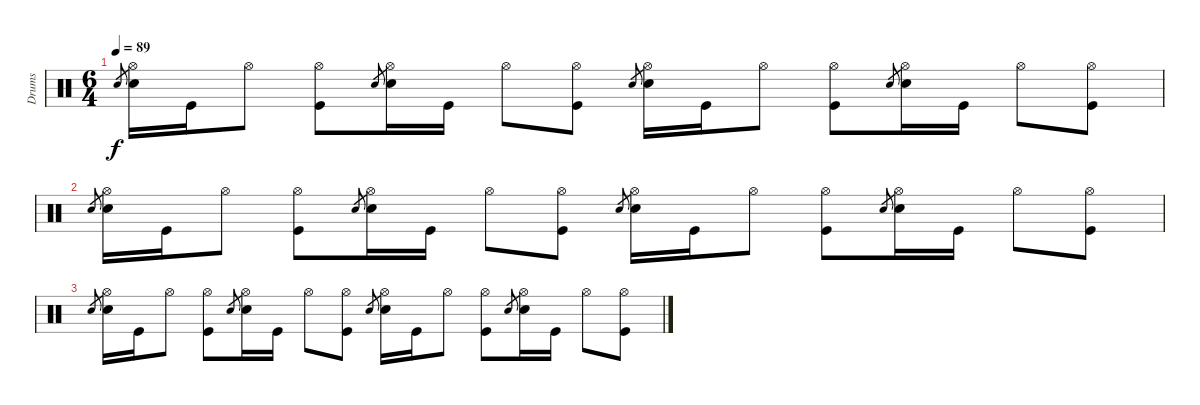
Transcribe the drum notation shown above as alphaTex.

\track ("Drums" "Drums") {instrument percussion}
\staff {score}
\articulation defaults
\ts (6 4)
\tempo 89
\clef neutral
\ks c "Snare (hit) 2".8{gr dy f}
("Hi-Hat (open)" "Snare (hit) 2").16 "Kick (hit)".16 "Hi-Hat (open)".8 ("Hi-Hat (open)" "Kick (hit)").8 "Snare (hit) 2".8{gr} ("Hi-Hat (open)" "Snare (hit) 2").16 "Kick (hit)".16 "Hi-Hat (open)".8 ("Hi-Hat (open)" "Kick (hit)").8 "Snare (hit) 2".8{gr} ("Hi-Hat (open)" "Snare (hit) 2").16 "Kick (hit)".16 "Hi-Hat (open)".8 ("Hi-Hat (open)" "Kick (hit)").8 "Snare (hit) 2".8{gr} ("Hi-Hat (open)" "Snare (hit) 2").16 "Kick (hit)".16 "Hi-Hat (open)".8 ("Hi-Hat (open)" "Kick (hit)").8 |
"Snare (hit) 2".8{gr} ("Hi-Hat (open)" "Snare (hit) 2").16 "Kick (hit)".16 "Hi-Hat (open)".8 ("Hi-Hat (open)" "Kick (hit)").8 "Snare (hit) 2".8{gr} ("Hi-Hat (open)" "Snare (hit) 2").16 "Kick (hit)".16 "Hi-Hat (open)".8 ("Hi-Hat (open)" "Kick (hit)").8 "Snare (hit) 2".8{gr} ("Hi-Hat (open)" "Snare (hit) 2").16 "Kick (hit)".16 "Hi-Hat (open)".8 ("Hi-Hat (open)" "Kick (hit)").8 "Snare (hit) 2".8{gr} ("Hi-Hat (open)" "Snare (hit) 2").16 "Kick (hit)".16 "Hi-Hat (open)".8 ("Hi-Hat (open)" "Kick (hit)").8 |
"Snare (hit) 2".8{gr} ("Hi-Hat (open)" "Snare (hit) 2").16 "Kick (hit)".16 "Hi-Hat (open)".8 ("Hi-Hat (open)" "Kick (hit)").8 "Snare (hit) 2".8{gr} ("Hi-Hat (open)" "Snare (hit) 2").16 "Kick (hit)".16 "Hi-Hat (open)".8 ("Hi-Hat (open)" "Kick (hit)").8 "Snare (hit) 2".8{gr} ("Hi-Hat (open)" "Snare (hit) 2").16 "Kick (hit)".16 "Hi-Hat (open)".8 ("Hi-Hat (open)" "Kick (hit)").8 "Snare (hit) 2".8{gr} ("Hi-Hat (open)" "Snare (hit) 2").16 "Kick (hit)".16 "Hi-Hat (open)".8 ("Hi-Hat (open)" "Kick (hit)").8
